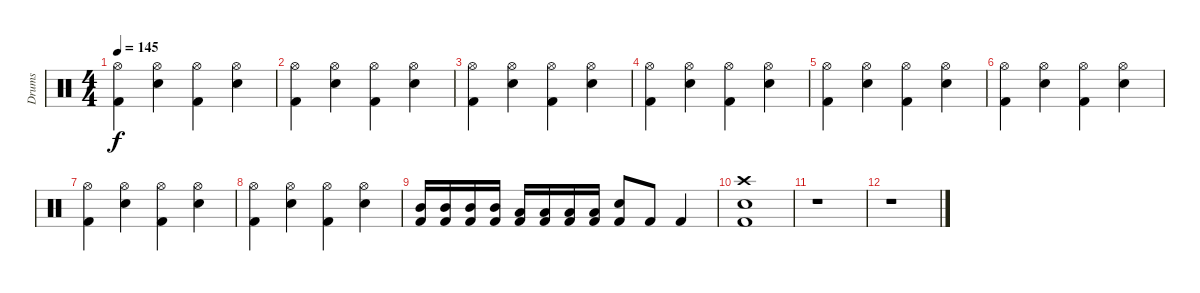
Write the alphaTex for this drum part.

\track ("Drums" "Drums") {instrument percussion}
\staff {score}
\articulation defaults
\ts (4 4)
\tempo 145
\clef neutral
\ks c
("Kick (hit) 2" "Hi-Hat (open)").4{dy f} ("Electric Snare (hit)" "Hi-Hat (open)").4 ("Kick (hit) 2" "Hi-Hat (open)").4 ("Electric Snare (hit)" "Hi-Hat (open)").4 |
("Kick (hit) 2" "Hi-Hat (open)").4 ("Electric Snare (hit)" "Hi-Hat (open)").4 ("Kick (hit) 2" "Hi-Hat (open)").4 ("Electric Snare (hit)" "Hi-Hat (open)").4 |
("Kick (hit) 2" "Hi-Hat (open)").4 ("Electric Snare (hit)" "Hi-Hat (open)").4 ("Kick (hit) 2" "Hi-Hat (open)").4 ("Electric Snare (hit)" "Hi-Hat (open)").4 |
("Kick (hit) 2" "Hi-Hat (open)").4 ("Electric Snare (hit)" "Hi-Hat (open)").4 ("Kick (hit) 2" "Hi-Hat (open)").4 ("Electric Snare (hit)" "Hi-Hat (open)").4 |
("Kick (hit) 2" "Hi-Hat (open)").4 ("Electric Snare (hit)" "Hi-Hat (open)").4 ("Kick (hit) 2" "Hi-Hat (open)").4 ("Electric Snare (hit)" "Hi-Hat (open)").4 |
("Kick (hit) 2" "Hi-Hat (open)").4 ("Electric Snare (hit)" "Hi-Hat (open)").4 ("Kick (hit) 2" "Hi-Hat (open)").4 ("Electric Snare (hit)" "Hi-Hat (open)").4 |
("Kick (hit) 2" "Hi-Hat (open)").4 ("Electric Snare (hit)" "Hi-Hat (open)").4 ("Kick (hit) 2" "Hi-Hat (open)").4 ("Electric Snare (hit)" "Hi-Hat (open)").4 |
("Kick (hit) 2" "Hi-Hat (open)").4 ("Electric Snare (hit)" "Hi-Hat (open)").4 ("Kick (hit) 2" "Hi-Hat (open)").4 ("Electric Snare (hit)" "Hi-Hat (open)").4 |
("Kick (hit) 2" "Mid Tom (hit)").16 ("Kick (hit) 2" "Mid Tom (hit)").16 ("Kick (hit) 2" "Mid Tom (hit)").16 ("Kick (hit) 2" "Mid Tom (hit)").16 ("Kick (hit) 2" "Low Tom (hit)").16 ("Kick (hit) 2" "Low Tom (hit)").16 ("Kick (hit) 2" "Low Tom (hit)").16 ("Kick (hit) 2" "Low Tom (hit)").16 ("Kick (hit) 2" "Electric Snare (hit)").8 "Kick (hit) 2".8 "Kick (hit) 2".4 |
("Kick (hit) 2" "Crash high (hit)" "Electric Snare (hit)").1 |
r.1 |
r.1
